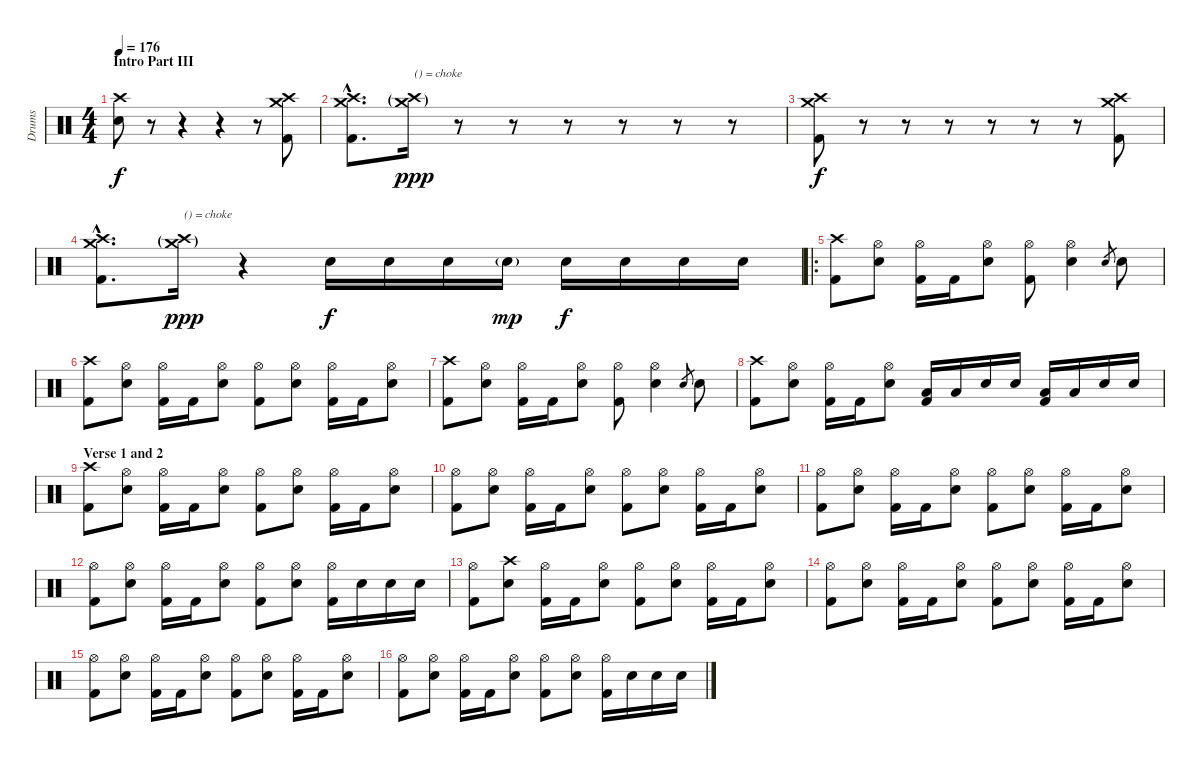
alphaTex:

\track ("Drums" "Drums") {instrument percussion}
\staff {score}
\articulation defaults
\ts (4 4)
\section ("" "Intro Part III")
\tempo 176
\clef neutral
\ks c
("Crash high (hit)" "Electric Snare (hit)").8{dy f} r.8 r.4 r.4 r.8 ("Crash high (hit)" "Crash medium (hit)" "Kick (hit) 2").8 |
("Crash high (hit)"{hac} "Crash medium (hit)"{hac} "Kick (hit) 2"{hac}).8{d} ("Crash high (hit)"{g} "Crash medium (hit)"{g}).16{txt "() = choke" dy ppp} r.8 r.8 r.8 r.8 r.8 r.8 |
("Crash high (hit)" "Crash medium (hit)" "Kick (hit) 2").8{dy f} r.8 r.8 r.8 r.8 r.8 r.8 ("Crash high (hit)" "Crash medium (hit)" "Kick (hit) 2").8 |
("Crash high (hit)"{hac} "Crash medium (hit)"{hac} "Kick (hit) 2"{hac}).8{d} ("Crash high (hit)"{g} "Crash medium (hit)"{g}).16{txt "() = choke" dy ppp} r.4 "Electric Snare (hit)".16{dy f} "Electric Snare (hit)".16 "Electric Snare (hit)".16 "Electric Snare (hit)"{g}.16{dy mp} "Electric Snare (hit)".16{dy f} "Electric Snare (hit)".16 "Electric Snare (hit)".16 "Electric Snare (hit)".16 |
\ro
("Crash high (hit)" "Kick (hit) 2").8 ("Hi-Hat (open)" "Electric Snare (hit)").8 ("Hi-Hat (open)" "Kick (hit) 2").16 "Kick (hit) 2".16 ("Hi-Hat (open)" "Electric Snare (hit)").8 ("Hi-Hat (open)" "Kick (hit) 2").8 ("Hi-Hat (open)" "Electric Snare (hit)").4 "Electric Snare (hit)".8{gr} "Electric Snare (hit)".8 |
("Crash high (hit)" "Kick (hit) 2").8 ("Hi-Hat (open)" "Electric Snare (hit)").8 ("Hi-Hat (open)" "Kick (hit) 2").16 "Kick (hit) 2".16 ("Hi-Hat (open)" "Electric Snare (hit)").8 ("Hi-Hat (open)" "Kick (hit) 2").8 ("Hi-Hat (open)" "Electric Snare (hit)").8 ("Hi-Hat (open)" "Kick (hit) 2").16 "Kick (hit) 2".16 ("Hi-Hat (open)" "Electric Snare (hit)").8 |
("Crash high (hit)" "Kick (hit) 2").8 ("Hi-Hat (open)" "Electric Snare (hit)").8 ("Hi-Hat (open)" "Kick (hit) 2").16 "Kick (hit) 2".16 ("Hi-Hat (open)" "Electric Snare (hit)").8 ("Hi-Hat (open)" "Kick (hit) 2").8 ("Hi-Hat (open)" "Electric Snare (hit)").4 "Electric Snare (hit)".8{gr} "Electric Snare (hit)".8 |
("Crash high (hit)" "Kick (hit) 2").8 ("Hi-Hat (open)" "Electric Snare (hit)").8 ("Hi-Hat (open)" "Kick (hit) 2").16 "Kick (hit) 2".16 ("Hi-Hat (open)" "Electric Snare (hit)").8 ("Low Tom (hit)" "Kick (hit) 2").16 "Low Tom (hit)".16 "Electric Snare (hit)".16 "Electric Snare (hit)".16 ("Low Tom (hit)" "Kick (hit) 2").16 "Low Tom (hit)".16 "Electric Snare (hit)".16 "Electric Snare (hit)".16 |
\section ("" "Verse 1 and 2")
("Crash high (hit)" "Kick (hit) 2").8 ("Hi-Hat (open)" "Electric Snare (hit)").8 ("Hi-Hat (open)" "Kick (hit) 2").16 "Kick (hit) 2".16 ("Hi-Hat (open)" "Electric Snare (hit)").8 ("Hi-Hat (open)" "Kick (hit) 2").8 ("Hi-Hat (open)" "Electric Snare (hit)").8 ("Hi-Hat (open)" "Kick (hit) 2").16 "Kick (hit) 2".16 ("Hi-Hat (open)" "Electric Snare (hit)").8 |
("Hi-Hat (open)" "Kick (hit) 2").8 ("Hi-Hat (open)" "Electric Snare (hit)").8 ("Hi-Hat (open)" "Kick (hit) 2").16 "Kick (hit) 2".16 ("Hi-Hat (open)" "Electric Snare (hit)").8 ("Hi-Hat (open)" "Kick (hit) 2").8 ("Hi-Hat (open)" "Electric Snare (hit)").8 ("Hi-Hat (open)" "Kick (hit) 2").16 "Kick (hit) 2".16 ("Hi-Hat (open)" "Electric Snare (hit)").8 |
("Hi-Hat (open)" "Kick (hit) 2").8 ("Hi-Hat (open)" "Electric Snare (hit)").8 ("Hi-Hat (open)" "Kick (hit) 2").16 "Kick (hit) 2".16 ("Hi-Hat (open)" "Electric Snare (hit)").8 ("Hi-Hat (open)" "Kick (hit) 2").8 ("Hi-Hat (open)" "Electric Snare (hit)").8 ("Hi-Hat (open)" "Kick (hit) 2").16 "Kick (hit) 2".16 ("Hi-Hat (open)" "Electric Snare (hit)").8 |
("Hi-Hat (open)" "Kick (hit) 2").8 ("Hi-Hat (open)" "Electric Snare (hit)").8 ("Hi-Hat (open)" "Kick (hit) 2").16 "Kick (hit) 2".16 ("Hi-Hat (open)" "Electric Snare (hit)").8 ("Hi-Hat (open)" "Kick (hit) 2").8 ("Hi-Hat (open)" "Electric Snare (hit)").8 ("Hi-Hat (open)" "Kick (hit) 2").16 "Electric Snare (hit)".16 "Electric Snare (hit)".16 "Electric Snare (hit)".16 |
("Hi-Hat (open)" "Kick (hit) 2").8 ("Crash high (hit)" "Electric Snare (hit)").8 ("Hi-Hat (open)" "Kick (hit) 2").16 "Kick (hit) 2".16 ("Hi-Hat (open)" "Electric Snare (hit)").8 ("Hi-Hat (open)" "Kick (hit) 2").8 ("Hi-Hat (open)" "Electric Snare (hit)").8 ("Hi-Hat (open)" "Kick (hit) 2").16 "Kick (hit) 2".16 ("Hi-Hat (open)" "Electric Snare (hit)").8 |
("Hi-Hat (open)" "Kick (hit) 2").8 ("Hi-Hat (open)" "Electric Snare (hit)").8 ("Hi-Hat (open)" "Kick (hit) 2").16 "Kick (hit) 2".16 ("Hi-Hat (open)" "Electric Snare (hit)").8 ("Hi-Hat (open)" "Kick (hit) 2").8 ("Hi-Hat (open)" "Electric Snare (hit)").8 ("Hi-Hat (open)" "Kick (hit) 2").16 "Kick (hit) 2".16 ("Hi-Hat (open)" "Electric Snare (hit)").8 |
("Hi-Hat (open)" "Kick (hit) 2").8 ("Hi-Hat (open)" "Electric Snare (hit)").8 ("Hi-Hat (open)" "Kick (hit) 2").16 "Kick (hit) 2".16 ("Hi-Hat (open)" "Electric Snare (hit)").8 ("Hi-Hat (open)" "Kick (hit) 2").8 ("Hi-Hat (open)" "Electric Snare (hit)").8 ("Hi-Hat (open)" "Kick (hit) 2").16 "Kick (hit) 2".16 ("Hi-Hat (open)" "Electric Snare (hit)").8 |
("Hi-Hat (open)" "Kick (hit) 2").8 ("Hi-Hat (open)" "Electric Snare (hit)").8 ("Hi-Hat (open)" "Kick (hit) 2").16 "Kick (hit) 2".16 ("Hi-Hat (open)" "Electric Snare (hit)").8 ("Hi-Hat (open)" "Kick (hit) 2").8 ("Hi-Hat (open)" "Electric Snare (hit)").8 ("Hi-Hat (open)" "Kick (hit) 2").16 "Electric Snare (hit)".16 "Electric Snare (hit)".16 "Electric Snare (hit)".16
